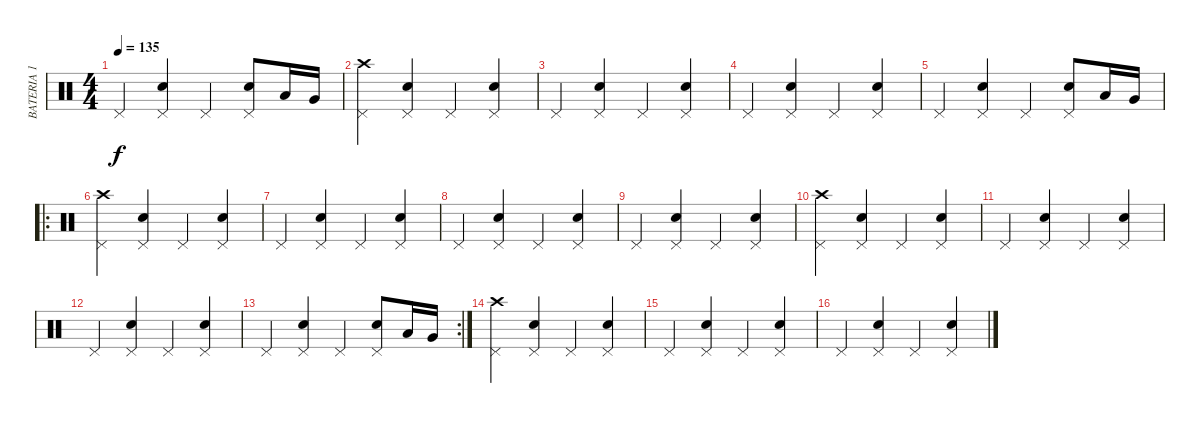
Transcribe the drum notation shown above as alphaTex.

\track ("BATERIA 1" "BATERIA 1") {instrument percussion}
\staff {score}
\articulation defaults
\ts (4 4)
\tempo 135
\clef neutral
\ks c "Pedal Hi-Hat (hit)".4{dy f}
("Electric Snare (hit)" "Pedal Hi-Hat (hit)").4 "Pedal Hi-Hat (hit)".4 ("Electric Snare (hit)" "Pedal Hi-Hat (hit)").8 "Low Tom (hit)".16 "Very Low Tom (hit)".16 |
("Pedal Hi-Hat (hit)" "Crash high (hit)").4 ("Electric Snare (hit)" "Pedal Hi-Hat (hit)").4 "Pedal Hi-Hat (hit)".4 ("Electric Snare (hit)" "Pedal Hi-Hat (hit)").4 |
"Pedal Hi-Hat (hit)".4 ("Electric Snare (hit)" "Pedal Hi-Hat (hit)").4 "Pedal Hi-Hat (hit)".4 ("Electric Snare (hit)" "Pedal Hi-Hat (hit)").4 |
"Pedal Hi-Hat (hit)".4 ("Electric Snare (hit)" "Pedal Hi-Hat (hit)").4 "Pedal Hi-Hat (hit)".4 ("Electric Snare (hit)" "Pedal Hi-Hat (hit)").4 |
"Pedal Hi-Hat (hit)".4 ("Electric Snare (hit)" "Pedal Hi-Hat (hit)").4 "Pedal Hi-Hat (hit)".4 ("Electric Snare (hit)" "Pedal Hi-Hat (hit)").8 "Low Tom (hit)".16 "Very Low Tom (hit)".16 |
\ro
("Pedal Hi-Hat (hit)" "Crash high (hit)").4 ("Electric Snare (hit)" "Pedal Hi-Hat (hit)").4 "Pedal Hi-Hat (hit)".4 ("Electric Snare (hit)" "Pedal Hi-Hat (hit)").4 |
"Pedal Hi-Hat (hit)".4 ("Electric Snare (hit)" "Pedal Hi-Hat (hit)").4 "Pedal Hi-Hat (hit)".4 ("Electric Snare (hit)" "Pedal Hi-Hat (hit)").4 |
"Pedal Hi-Hat (hit)".4 ("Electric Snare (hit)" "Pedal Hi-Hat (hit)").4 "Pedal Hi-Hat (hit)".4 ("Electric Snare (hit)" "Pedal Hi-Hat (hit)").4 |
"Pedal Hi-Hat (hit)".4 ("Electric Snare (hit)" "Pedal Hi-Hat (hit)").4 "Pedal Hi-Hat (hit)".4 ("Electric Snare (hit)" "Pedal Hi-Hat (hit)").4 |
("Pedal Hi-Hat (hit)" "Crash high (hit)").4 ("Electric Snare (hit)" "Pedal Hi-Hat (hit)").4 "Pedal Hi-Hat (hit)".4 ("Electric Snare (hit)" "Pedal Hi-Hat (hit)").4 |
"Pedal Hi-Hat (hit)".4 ("Electric Snare (hit)" "Pedal Hi-Hat (hit)").4 "Pedal Hi-Hat (hit)".4 ("Electric Snare (hit)" "Pedal Hi-Hat (hit)").4 |
"Pedal Hi-Hat (hit)".4 ("Electric Snare (hit)" "Pedal Hi-Hat (hit)").4 "Pedal Hi-Hat (hit)".4 ("Electric Snare (hit)" "Pedal Hi-Hat (hit)").4 |
\rc 2 "Pedal Hi-Hat (hit)".4
("Electric Snare (hit)" "Pedal Hi-Hat (hit)").4 "Pedal Hi-Hat (hit)".4 ("Electric Snare (hit)" "Pedal Hi-Hat (hit)").8 "Low Tom (hit)".16 "Very Low Tom (hit)".16 |
("Pedal Hi-Hat (hit)" "Crash high (hit)").4 ("Electric Snare (hit)" "Pedal Hi-Hat (hit)").4 "Pedal Hi-Hat (hit)".4 ("Electric Snare (hit)" "Pedal Hi-Hat (hit)").4 |
"Pedal Hi-Hat (hit)".4 ("Electric Snare (hit)" "Pedal Hi-Hat (hit)").4 "Pedal Hi-Hat (hit)".4 ("Electric Snare (hit)" "Pedal Hi-Hat (hit)").4 |
"Pedal Hi-Hat (hit)".4 ("Electric Snare (hit)" "Pedal Hi-Hat (hit)").4 "Pedal Hi-Hat (hit)".4 ("Electric Snare (hit)" "Pedal Hi-Hat (hit)").4
